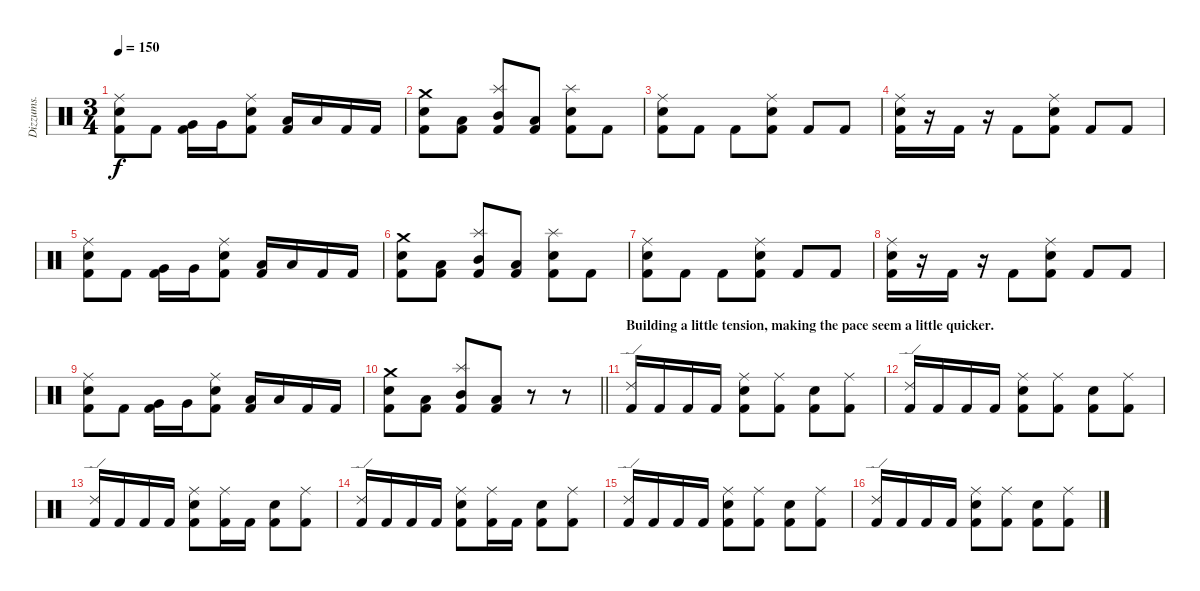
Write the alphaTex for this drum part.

\track ("Dizzums." "Dizzums.") {instrument percussion}
\staff {score}
\articulation defaults
\ts (3 4)
\tempo 150
\clef neutral
\ks c
("Ride (middle)" "Electric Snare (hit)" "Kick (hit) 2").8{dy f} "Kick (hit) 2".8 ("Very Low Tom (hit)" "Kick (hit) 2").16 "Very Low Tom (hit)".16 ("Ride (middle)" "Electric Snare (hit)" "Kick (hit) 2").8 ("Low Floor Tom (hit)" "Kick (hit) 2").16 "Low Floor Tom (hit)".16 "Kick (hit) 2".16 "Kick (hit) 2".16 |
("Crash medium (hit)" "Electric Snare (hit)" "Kick (hit) 2").8 ("Low Tom (hit)" "Kick (hit) 2").8 ("Splash (hit)" "Mid Tom (hit)" "Kick (hit) 2").8 ("Low Tom (hit)" "Kick (hit) 2").8 ("Splash (hit)" "Electric Snare (hit)" "Kick (hit) 2").8 "Kick (hit) 2".8 |
("Ride (middle)" "Electric Snare (hit)" "Kick (hit) 2").8 "Kick (hit) 2".8 "Kick (hit) 2".8 ("Ride (middle)" "Electric Snare (hit)" "Kick (hit) 2").8 "Kick (hit) 2".8 "Kick (hit) 2".8 |
("Ride (middle)" "Electric Snare (hit)" "Kick (hit) 2").16 r.16 "Kick (hit) 2".16 r.16 "Kick (hit) 2".8 ("Ride (middle)" "Electric Snare (hit)" "Kick (hit) 2").8 "Kick (hit) 2".8 "Kick (hit) 2".8 |
("Ride (middle)" "Electric Snare (hit)" "Kick (hit) 2").8 "Kick (hit) 2".8 ("Very Low Tom (hit)" "Kick (hit) 2").16 "Very Low Tom (hit)".16 ("Ride (middle)" "Electric Snare (hit)" "Kick (hit) 2").8 ("Low Floor Tom (hit)" "Kick (hit) 2").16 "Low Floor Tom (hit)".16 "Kick (hit) 2".16 "Kick (hit) 2".16 |
("Crash medium (hit)" "Electric Snare (hit)" "Kick (hit) 2").8 ("Low Tom (hit)" "Kick (hit) 2").8 ("Splash (hit)" "Mid Tom (hit)" "Kick (hit) 2").8 ("Low Tom (hit)" "Kick (hit) 2").8 ("Splash (hit)" "Electric Snare (hit)" "Kick (hit) 2").8 "Kick (hit) 2".8 |
("Ride (middle)" "Electric Snare (hit)" "Kick (hit) 2").8 "Kick (hit) 2".8 "Kick (hit) 2".8 ("Ride (middle)" "Electric Snare (hit)" "Kick (hit) 2").8 "Kick (hit) 2".8 "Kick (hit) 2".8 |
("Ride (middle)" "Electric Snare (hit)" "Kick (hit) 2").16 r.16 "Kick (hit) 2".16 r.16 "Kick (hit) 2".8 ("Ride (middle)" "Electric Snare (hit)" "Kick (hit) 2").8 "Kick (hit) 2".8 "Kick (hit) 2".8 |
("Ride (middle)" "Electric Snare (hit)" "Kick (hit) 2").8 "Kick (hit) 2".8 ("Very Low Tom (hit)" "Kick (hit) 2").16 "Very Low Tom (hit)".16 ("Ride (middle)" "Electric Snare (hit)" "Kick (hit) 2").8 ("Low Floor Tom (hit)" "Kick (hit) 2").16 "Low Floor Tom (hit)".16 "Kick (hit) 2".16 "Kick (hit) 2".16 |
\barLineRight lightlight
("Crash medium (hit)" "Electric Snare (hit)" "Kick (hit) 2").8 ("Low Tom (hit)" "Kick (hit) 2").8 ("Splash (hit)" "Mid Tom (hit)" "Kick (hit) 2").8 ("Low Tom (hit)" "Kick (hit) 2").8 r.8 r.8 |
\section ("" "Building a little tension, making the pace seem a little quicker.")
("Ride (edge) 2" "Kick (hit) 2").16 "Kick (hit) 2".16 "Kick (hit) 2".16 "Kick (hit) 2".16 ("Ride (middle)" "Electric Snare (hit)" "Kick (hit) 2").8 ("Ride (middle)" "Kick (hit) 2").8 ("Electric Snare (hit)" "Kick (hit) 2").8 ("Ride (middle)" "Kick (hit) 2").8 |
("Ride (edge) 2" "Kick (hit) 2").16 "Kick (hit) 2".16 "Kick (hit) 2".16 "Kick (hit) 2".16 ("Ride (middle)" "Electric Snare (hit)" "Kick (hit) 2").8 ("Ride (middle)" "Kick (hit) 2").8 ("Electric Snare (hit)" "Kick (hit) 2").8 ("Ride (middle)" "Kick (hit) 2").8 |
("Ride (edge) 2" "Kick (hit) 2").16 "Kick (hit) 2".16 "Kick (hit) 2".16 "Kick (hit) 2".16 ("Ride (middle)" "Electric Snare (hit)" "Kick (hit) 2").8 ("Ride (middle)" "Kick (hit) 2").16 "Kick (hit) 2".16 ("Electric Snare (hit)" "Kick (hit) 2").8 ("Ride (middle)" "Kick (hit) 2").8 |
("Ride (edge) 2" "Kick (hit) 2").16 "Kick (hit) 2".16 "Kick (hit) 2".16 "Kick (hit) 2".16 ("Ride (middle)" "Electric Snare (hit)" "Kick (hit) 2").8 ("Ride (middle)" "Kick (hit) 2").16 "Kick (hit) 2".16 ("Electric Snare (hit)" "Kick (hit) 2").8 ("Ride (middle)" "Kick (hit) 2").8 |
("Ride (edge) 2" "Kick (hit) 2").16 "Kick (hit) 2".16 "Kick (hit) 2".16 "Kick (hit) 2".16 ("Ride (middle)" "Electric Snare (hit)" "Kick (hit) 2").8 ("Ride (middle)" "Kick (hit) 2").8 ("Electric Snare (hit)" "Kick (hit) 2").8 ("Ride (middle)" "Kick (hit) 2").8 |
("Ride (edge) 2" "Kick (hit) 2").16 "Kick (hit) 2".16 "Kick (hit) 2".16 "Kick (hit) 2".16 ("Ride (middle)" "Electric Snare (hit)" "Kick (hit) 2").8 ("Ride (middle)" "Kick (hit) 2").8 ("Electric Snare (hit)" "Kick (hit) 2").8 ("Ride (middle)" "Kick (hit) 2").8
